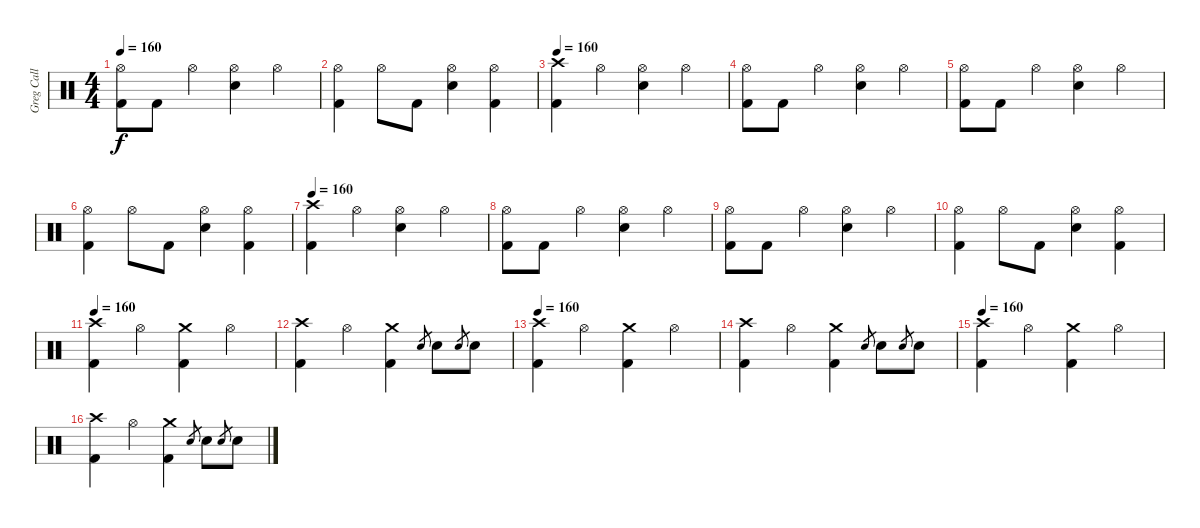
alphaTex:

\track ("Greg Call (Drums)" "Greg Call ") {instrument percussion}
\staff {score}
\articulation defaults
\ts (4 4)
\tempo 160
\clef neutral
\ks c
("Hi-Hat (open)" "Kick (hit) 2").8{dy f} "Kick (hit) 2".8 "Hi-Hat (open)".4 ("Hi-Hat (open)" "Snare (hit) 2").4 "Hi-Hat (open)".4 |
("Hi-Hat (open)" "Kick (hit) 2").4 "Hi-Hat (open)".8 "Kick (hit) 2".8 ("Hi-Hat (open)" "Snare (hit) 2").4 ("Hi-Hat (open)" "Kick (hit) 2").4 |
\tempo 160
("Crash high (hit)" "Kick (hit) 2").4 "Hi-Hat (open)".4 ("Hi-Hat (open)" "Snare (hit) 2").4 "Hi-Hat (open)".4 |
("Hi-Hat (open)" "Kick (hit) 2").8 "Kick (hit) 2".8 "Hi-Hat (open)".4 ("Hi-Hat (open)" "Snare (hit) 2").4 "Hi-Hat (open)".4 |
("Hi-Hat (open)" "Kick (hit) 2").8 "Kick (hit) 2".8 "Hi-Hat (open)".4 ("Hi-Hat (open)" "Snare (hit) 2").4 "Hi-Hat (open)".4 |
("Hi-Hat (open)" "Kick (hit) 2").4 "Hi-Hat (open)".8 "Kick (hit) 2".8 ("Hi-Hat (open)" "Snare (hit) 2").4 ("Hi-Hat (open)" "Kick (hit) 2").4 |
\tempo 160
("Crash high (hit)" "Kick (hit) 2").4 "Hi-Hat (open)".4 ("Hi-Hat (open)" "Snare (hit) 2").4 "Hi-Hat (open)".4 |
("Hi-Hat (open)" "Kick (hit) 2").8 "Kick (hit) 2".8 "Hi-Hat (open)".4 ("Hi-Hat (open)" "Snare (hit) 2").4 "Hi-Hat (open)".4 |
("Hi-Hat (open)" "Kick (hit) 2").8 "Kick (hit) 2".8 "Hi-Hat (open)".4 ("Hi-Hat (open)" "Snare (hit) 2").4 "Hi-Hat (open)".4 |
("Hi-Hat (open)" "Kick (hit) 2").4 "Hi-Hat (open)".8 "Kick (hit) 2".8 ("Hi-Hat (open)" "Snare (hit) 2").4 ("Hi-Hat (open)" "Kick (hit) 2").4 |
\tempo 160
("Crash high (hit)" "Kick (hit) 2").4 "Hi-Hat (open)".4 ("Kick (hit) 2" "Crash medium (hit)").4 "Hi-Hat (open)".4 |
("Crash high (hit)" "Kick (hit) 2").4 "Hi-Hat (open)".4 ("Crash medium (hit)" "Kick (hit) 2").4 "Snare (hit) 2".8{gr} "Snare (hit) 2".8 "Snare (hit) 2".8{gr} "Snare (hit) 2".8 |
\tempo 160
("Crash high (hit)" "Kick (hit) 2").4 "Hi-Hat (open)".4 ("Kick (hit) 2" "Crash medium (hit)").4 "Hi-Hat (open)".4 |
("Crash high (hit)" "Kick (hit) 2").4 "Hi-Hat (open)".4 ("Crash medium (hit)" "Kick (hit) 2").4 "Snare (hit) 2".8{gr} "Snare (hit) 2".8 "Snare (hit) 2".8{gr} "Snare (hit) 2".8 |
\tempo 160
("Crash high (hit)" "Kick (hit) 2").4 "Hi-Hat (open)".4 ("Kick (hit) 2" "Crash medium (hit)").4 "Hi-Hat (open)".4 |
("Crash high (hit)" "Kick (hit) 2").4 "Hi-Hat (open)".4 ("Crash medium (hit)" "Kick (hit) 2").4 "Snare (hit) 2".8{gr} "Snare (hit) 2".8 "Snare (hit) 2".8{gr} "Snare (hit) 2".8
